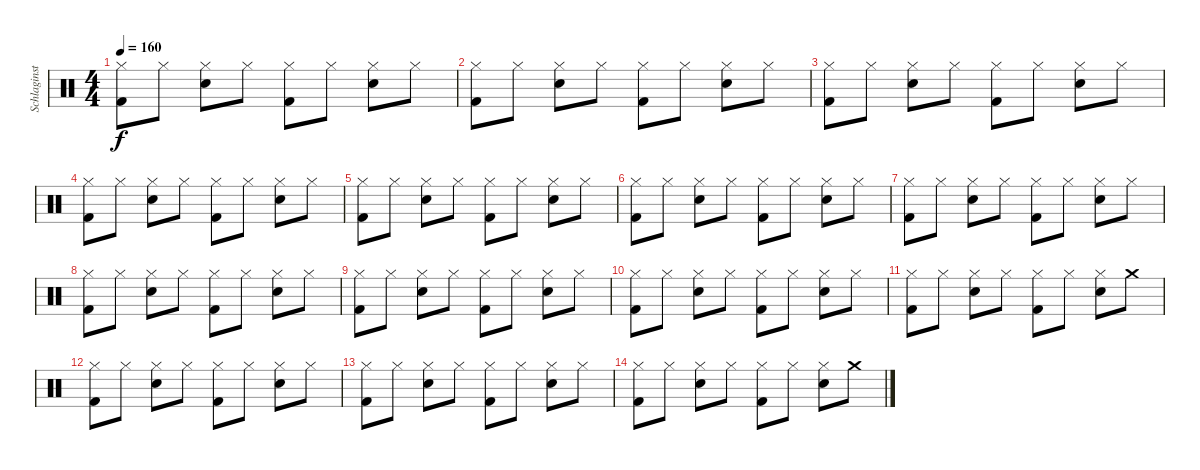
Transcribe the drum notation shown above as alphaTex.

\track ("Schlaginstrumente - Auswahl" "Schlaginst") {instrument percussion}
\staff {score}
\articulation defaults
\ts (4 4)
\tempo 160
\clef neutral
\ks c
("Hi-Hat (closed)" "Kick (hit) 2").8{dy f} "Hi-Hat (closed)".8 ("Hi-Hat (closed)" "Snare (hit) 2").8 "Hi-Hat (closed)".8 ("Hi-Hat (closed)" "Kick (hit) 2").8 "Hi-Hat (closed)".8 ("Hi-Hat (closed)" "Snare (hit) 2").8 "Hi-Hat (closed)".8 |
("Hi-Hat (closed)" "Kick (hit) 2").8 "Hi-Hat (closed)".8 ("Hi-Hat (closed)" "Snare (hit) 2").8 "Hi-Hat (closed)".8 ("Hi-Hat (closed)" "Kick (hit) 2").8 "Hi-Hat (closed)".8 ("Hi-Hat (closed)" "Snare (hit) 2").8 "Hi-Hat (closed)".8 |
("Hi-Hat (closed)" "Kick (hit) 2").8 "Hi-Hat (closed)".8 ("Hi-Hat (closed)" "Snare (hit) 2").8 "Hi-Hat (closed)".8 ("Hi-Hat (closed)" "Kick (hit) 2").8 "Hi-Hat (closed)".8 ("Hi-Hat (closed)" "Snare (hit) 2").8 "Hi-Hat (closed)".8 |
("Hi-Hat (closed)" "Kick (hit) 2").8 "Hi-Hat (closed)".8 ("Hi-Hat (closed)" "Snare (hit) 2").8 "Hi-Hat (closed)".8 ("Hi-Hat (closed)" "Kick (hit) 2").8 "Hi-Hat (closed)".8 ("Hi-Hat (closed)" "Snare (hit) 2").8 "Hi-Hat (closed)".8 |
("Hi-Hat (closed)" "Kick (hit) 2").8 "Hi-Hat (closed)".8 ("Hi-Hat (closed)" "Snare (hit) 2").8 "Hi-Hat (closed)".8 ("Hi-Hat (closed)" "Kick (hit) 2").8 "Hi-Hat (closed)".8 ("Hi-Hat (closed)" "Snare (hit) 2").8 "Hi-Hat (closed)".8 |
("Hi-Hat (closed)" "Kick (hit) 2").8 "Hi-Hat (closed)".8 ("Hi-Hat (closed)" "Snare (hit) 2").8 "Hi-Hat (closed)".8 ("Hi-Hat (closed)" "Kick (hit) 2").8 "Hi-Hat (closed)".8 ("Hi-Hat (closed)" "Snare (hit) 2").8 "Hi-Hat (closed)".8 |
("Hi-Hat (closed)" "Kick (hit) 2").8 "Hi-Hat (closed)".8 ("Hi-Hat (closed)" "Snare (hit) 2").8 "Hi-Hat (closed)".8 ("Hi-Hat (closed)" "Kick (hit) 2").8 "Hi-Hat (closed)".8 ("Hi-Hat (closed)" "Snare (hit) 2").8 "Hi-Hat (closed)".8 |
("Hi-Hat (closed)" "Kick (hit) 2").8 "Hi-Hat (closed)".8 ("Hi-Hat (closed)" "Snare (hit) 2").8 "Hi-Hat (closed)".8 ("Hi-Hat (closed)" "Kick (hit) 2").8 "Hi-Hat (closed)".8 ("Hi-Hat (closed)" "Snare (hit) 2").8 "Hi-Hat (closed)".8 |
("Hi-Hat (closed)" "Kick (hit) 2").8 "Hi-Hat (closed)".8 ("Hi-Hat (closed)" "Snare (hit) 2").8 "Hi-Hat (closed)".8 ("Hi-Hat (closed)" "Kick (hit) 2").8 "Hi-Hat (closed)".8 ("Hi-Hat (closed)" "Snare (hit) 2").8 "Hi-Hat (closed)".8 |
("Hi-Hat (closed)" "Kick (hit) 2").8 "Hi-Hat (closed)".8 ("Hi-Hat (closed)" "Snare (hit) 2").8 "Hi-Hat (closed)".8 ("Hi-Hat (closed)" "Kick (hit) 2").8 "Hi-Hat (closed)".8 ("Hi-Hat (closed)" "Snare (hit) 2").8 "Hi-Hat (closed)".8 |
("Hi-Hat (closed)" "Kick (hit) 2").8 "Hi-Hat (closed)".8 ("Hi-Hat (closed)" "Snare (hit) 2").8 "Hi-Hat (closed)".8 ("Hi-Hat (closed)" "Kick (hit) 2").8 "Hi-Hat (closed)".8 ("Hi-Hat (closed)" "Snare (hit) 2").8 "Crash medium (hit)".8 |
("Hi-Hat (closed)" "Kick (hit) 2").8 "Hi-Hat (closed)".8 ("Hi-Hat (closed)" "Snare (hit) 2").8 "Hi-Hat (closed)".8 ("Hi-Hat (closed)" "Kick (hit) 2").8 "Hi-Hat (closed)".8 ("Hi-Hat (closed)" "Snare (hit) 2").8 "Hi-Hat (closed)".8 |
("Hi-Hat (closed)" "Kick (hit) 2").8 "Hi-Hat (closed)".8 ("Hi-Hat (closed)" "Snare (hit) 2").8 "Hi-Hat (closed)".8 ("Hi-Hat (closed)" "Kick (hit) 2").8 "Hi-Hat (closed)".8 ("Hi-Hat (closed)" "Snare (hit) 2").8 "Hi-Hat (closed)".8 |
("Hi-Hat (closed)" "Kick (hit) 2").8 "Hi-Hat (closed)".8 ("Hi-Hat (closed)" "Snare (hit) 2").8 "Hi-Hat (closed)".8 ("Hi-Hat (closed)" "Kick (hit) 2").8 "Hi-Hat (closed)".8 ("Hi-Hat (closed)" "Snare (hit) 2").8 "Crash medium (hit)".8
